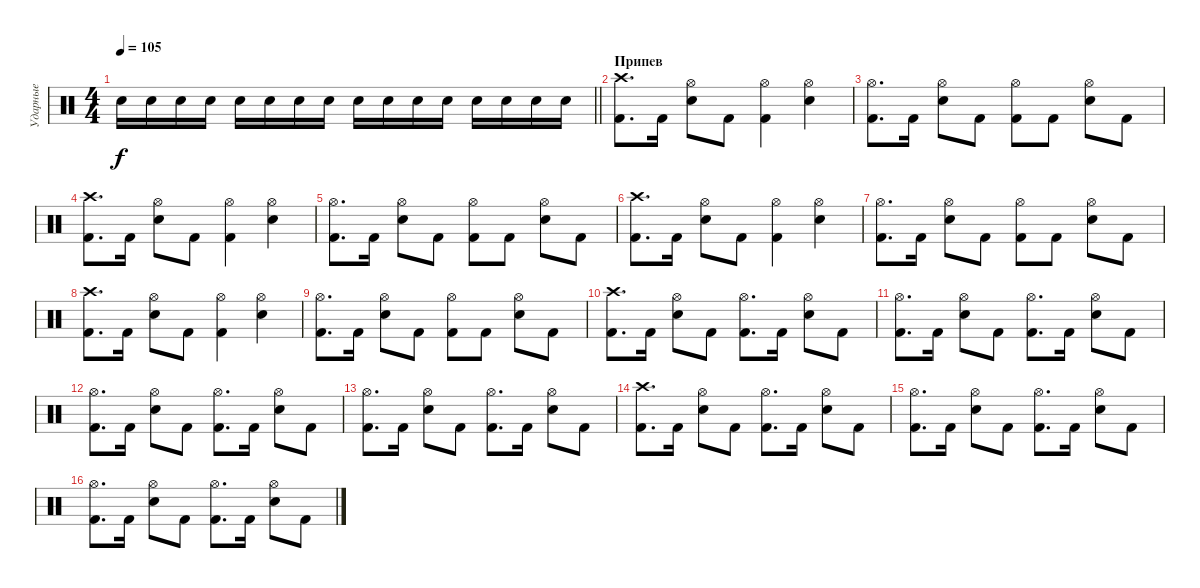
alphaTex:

\track ("Ударные" "Ударные") {instrument percussion}
\staff {score}
\articulation defaults
\ts (4 4)
\tempo 105
\clef neutral
\barLineRight lightlight
\ks c "Snare (hit) 2".16{dy f} "Snare (hit) 2".16 "Snare (hit) 2".16 "Snare (hit) 2".16 "Snare (hit) 2".16 "Snare (hit) 2".16 "Snare (hit) 2".16 "Snare (hit) 2".16 "Snare (hit) 2".16 "Snare (hit) 2".16 "Snare (hit) 2".16 "Snare (hit) 2".16 "Snare (hit) 2".16 "Snare (hit) 2".16 "Snare (hit) 2".16 "Snare (hit) 2".16
|
\section ("" "Припев")
("Kick (hit) 2" "Crash high (hit)").8{d} "Kick (hit) 2".16 ("Snare (hit) 2" "Hi-Hat (open)").8 "Kick (hit) 2".8 ("Kick (hit) 2" "Hi-Hat (open)").4 ("Snare (hit) 2" "Hi-Hat (open)").4 |
("Kick (hit) 2" "Hi-Hat (open)").8{d} "Kick (hit) 2".16 ("Snare (hit) 2" "Hi-Hat (open)").8 "Kick (hit) 2".8 ("Kick (hit) 2" "Hi-Hat (open)").8 "Kick (hit) 2".8 ("Snare (hit) 2" "Hi-Hat (open)").8 "Kick (hit) 2".8 |
("Kick (hit) 2" "Crash high (hit)").8{d} "Kick (hit) 2".16 ("Snare (hit) 2" "Hi-Hat (open)").8 "Kick (hit) 2".8 ("Kick (hit) 2" "Hi-Hat (open)").4 ("Snare (hit) 2" "Hi-Hat (open)").4 |
("Kick (hit) 2" "Hi-Hat (open)").8{d} "Kick (hit) 2".16 ("Snare (hit) 2" "Hi-Hat (open)").8 "Kick (hit) 2".8 ("Kick (hit) 2" "Hi-Hat (open)").8 "Kick (hit) 2".8 ("Snare (hit) 2" "Hi-Hat (open)").8 "Kick (hit) 2".8 |
("Kick (hit) 2" "Crash high (hit)").8{d} "Kick (hit) 2".16 ("Snare (hit) 2" "Hi-Hat (open)").8 "Kick (hit) 2".8 ("Kick (hit) 2" "Hi-Hat (open)").4 ("Snare (hit) 2" "Hi-Hat (open)").4 |
("Kick (hit) 2" "Hi-Hat (open)").8{d} "Kick (hit) 2".16 ("Snare (hit) 2" "Hi-Hat (open)").8 "Kick (hit) 2".8 ("Kick (hit) 2" "Hi-Hat (open)").8 "Kick (hit) 2".8 ("Snare (hit) 2" "Hi-Hat (open)").8 "Kick (hit) 2".8 |
("Kick (hit) 2" "Crash high (hit)").8{d} "Kick (hit) 2".16 ("Snare (hit) 2" "Hi-Hat (open)").8 "Kick (hit) 2".8 ("Kick (hit) 2" "Hi-Hat (open)").4 ("Snare (hit) 2" "Hi-Hat (open)").4 |
("Kick (hit) 2" "Hi-Hat (open)").8{d} "Kick (hit) 2".16 ("Snare (hit) 2" "Hi-Hat (open)").8 "Kick (hit) 2".8 ("Kick (hit) 2" "Hi-Hat (open)").8 "Kick (hit) 2".8 ("Snare (hit) 2" "Hi-Hat (open)").8 "Kick (hit) 2".8 |
("Kick (hit) 2" "Crash high (hit)").8{d} "Kick (hit) 2".16 ("Snare (hit) 2" "Hi-Hat (open)").8 "Kick (hit) 2".8 ("Kick (hit) 2" "Hi-Hat (open)").8{d} "Kick (hit) 2".16 ("Snare (hit) 2" "Hi-Hat (open)").8 "Kick (hit) 2".8 |
("Kick (hit) 2" "Hi-Hat (open)").8{d} "Kick (hit) 2".16 ("Snare (hit) 2" "Hi-Hat (open)").8 "Kick (hit) 2".8 ("Kick (hit) 2" "Hi-Hat (open)").8{d} "Kick (hit) 2".16 ("Snare (hit) 2" "Hi-Hat (open)").8 "Kick (hit) 2".8 |
("Kick (hit) 2" "Hi-Hat (open)").8{d} "Kick (hit) 2".16 ("Snare (hit) 2" "Hi-Hat (open)").8 "Kick (hit) 2".8 ("Kick (hit) 2" "Hi-Hat (open)").8{d} "Kick (hit) 2".16 ("Snare (hit) 2" "Hi-Hat (open)").8 "Kick (hit) 2".8 |
("Kick (hit) 2" "Hi-Hat (open)").8{d} "Kick (hit) 2".16 ("Snare (hit) 2" "Hi-Hat (open)").8 "Kick (hit) 2".8 ("Kick (hit) 2" "Hi-Hat (open)").8{d} "Kick (hit) 2".16 ("Snare (hit) 2" "Hi-Hat (open)").8 "Kick (hit) 2".8 |
("Kick (hit) 2" "Crash high (hit)").8{d} "Kick (hit) 2".16 ("Snare (hit) 2" "Hi-Hat (open)").8 "Kick (hit) 2".8 ("Kick (hit) 2" "Hi-Hat (open)").8{d} "Kick (hit) 2".16 ("Snare (hit) 2" "Hi-Hat (open)").8 "Kick (hit) 2".8 |
("Kick (hit) 2" "Hi-Hat (open)").8{d} "Kick (hit) 2".16 ("Snare (hit) 2" "Hi-Hat (open)").8 "Kick (hit) 2".8 ("Kick (hit) 2" "Hi-Hat (open)").8{d} "Kick (hit) 2".16 ("Snare (hit) 2" "Hi-Hat (open)").8 "Kick (hit) 2".8 |
("Kick (hit) 2" "Hi-Hat (open)").8{d} "Kick (hit) 2".16 ("Snare (hit) 2" "Hi-Hat (open)").8 "Kick (hit) 2".8 ("Kick (hit) 2" "Hi-Hat (open)").8{d} "Kick (hit) 2".16 ("Snare (hit) 2" "Hi-Hat (open)").8 "Kick (hit) 2".8
